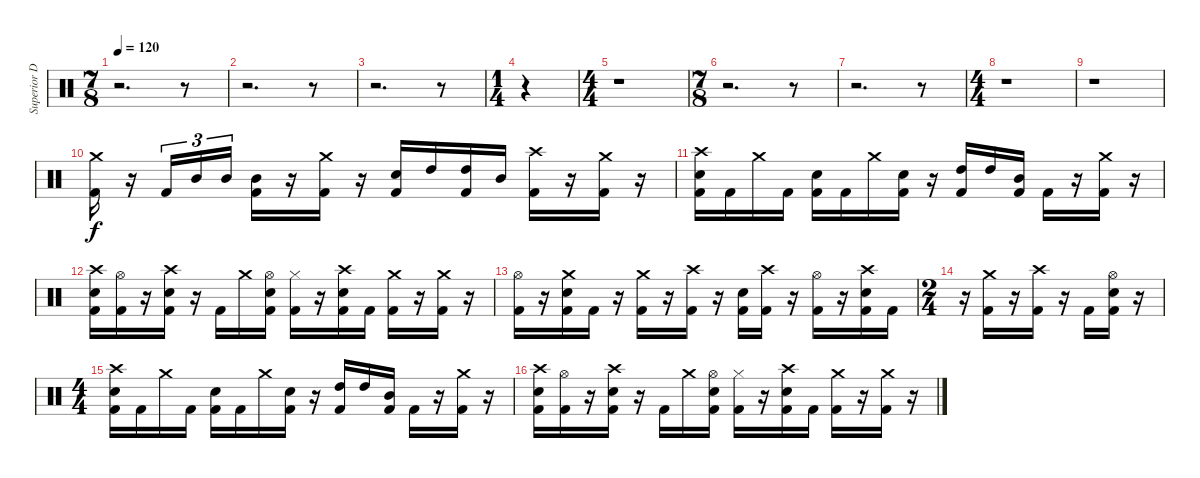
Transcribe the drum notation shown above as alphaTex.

\track ("Superior Drummer 07" "Superior D") {instrument percussion}
\staff {score}
\articulation defaults
\ts (7 8)
\tempo 120
\clef neutral
\ks c
r.2{d dy f} r.8 |
r.2{d} r.8 |
r.2{d} r.8 |
\ts (1 4)
r.4 |
\ts (4 4)
r.1 |
\ts (7 8)
r.2{d} r.8 |
r.2{d} r.8 |
\ts (4 4)
r.1 |
r.1 |
("Kick (hit) 2" "Crash medium (hit)").16 r.16 "Kick (hit) 2".16{tu (3 2)} "Mid Tom (hit)".16{tu (3 2)} "Mid Tom (hit)".16{tu (3 2)} ("Kick (hit) 2" "Mid Tom (hit)").16 r.16 ("Kick (hit) 2" "Crash medium (hit)").16 r.16 ("Kick (hit) 2" "Snare (hit) 2").16 "High Tom (hit)".16 ("Kick (hit) 2" "High Tom (hit)").16 "Mid Tom (hit)".16 ("Kick (hit) 2" "Crash high (hit)").16 r.16 ("Kick (hit) 2" "Crash medium (hit)").16 r.16 |
("Kick (hit) 2" "Snare (hit) 2" "Crash high (hit)").16 "Kick (hit) 2".16 "Crash medium (hit)".16 "Kick (hit) 2".16 ("Kick (hit) 2" "Snare (hit) 2").16 "Kick (hit) 2".16 "Crash medium (hit)".16 ("Kick (hit) 2" "Snare (hit) 2").16 r.16 ("Kick (hit) 2" "High Tom (hit)").16 "High Tom (hit)".16 ("Kick (hit) 2" "Mid Tom (hit)").16 "Kick (hit) 2".16 r.16 ("Kick (hit) 2" "Crash medium (hit)").16 r.16 |
("Kick (hit) 2" "Snare (hit) 2" "Crash high (hit)").16 ("Kick (hit) 2" "Hi-Hat (open)").16 r.16 ("Kick (hit) 2" "Snare (hit) 2" "Crash high (hit)").16 r.16 "Kick (hit) 2".16 "Crash medium (hit)".16 ("Kick (hit) 2" "Snare (hit) 2" "Hi-Hat (open)").16 ("Kick (hit) 2" "Hi-Hat (closed)").16 r.16 ("Kick (hit) 2" "Snare (hit) 2" "Crash high (hit)").16 "Kick (hit) 2".16 ("Kick (hit) 2" "Crash medium (hit)").16 r.16 ("Kick (hit) 2" "Crash medium (hit)").16 r.16 |
("Kick (hit) 2" "Hi-Hat (open)").16 r.16 ("Kick (hit) 2" "Snare (hit) 2" "Crash medium (hit)").16 "Kick (hit) 2".16 r.16 ("Kick (hit) 2" "Crash medium (hit)").16 r.16 ("Kick (hit) 2" "Crash high (hit)").16 r.16 ("Kick (hit) 2" "Snare (hit) 2").16 ("Kick (hit) 2" "Crash high (hit)").16 r.16 ("Kick (hit) 2" "Hi-Hat (open)").16 r.16 ("Kick (hit) 2" "Snare (hit) 2" "Crash high (hit)").16 "Kick (hit) 2".16 |
\ts (2 4)
r.16 ("Kick (hit) 2" "Crash medium (hit)").16 r.16 ("Kick (hit) 2" "Crash high (hit)").16 r.16 "Kick (hit) 2".16 ("Kick (hit) 2" "Snare (hit) 2" "Hi-Hat (open)").16 r.16 |
\ts (4 4)
("Kick (hit) 2" "Snare (hit) 2" "Crash high (hit)").16 "Kick (hit) 2".16 "Crash medium (hit)".16 "Kick (hit) 2".16 ("Kick (hit) 2" "Snare (hit) 2").16 "Kick (hit) 2".16 "Crash medium (hit)".16 ("Kick (hit) 2" "Snare (hit) 2").16 r.16 ("Kick (hit) 2" "High Tom (hit)").16 "High Tom (hit)".16 ("Kick (hit) 2" "Mid Tom (hit)").16 "Kick (hit) 2".16 r.16 ("Kick (hit) 2" "Crash medium (hit)").16 r.16 |
("Kick (hit) 2" "Snare (hit) 2" "Crash high (hit)").16 ("Kick (hit) 2" "Hi-Hat (open)").16 r.16 ("Kick (hit) 2" "Snare (hit) 2" "Crash high (hit)").16 r.16 "Kick (hit) 2".16 "Crash medium (hit)".16 ("Kick (hit) 2" "Snare (hit) 2" "Hi-Hat (open)").16 ("Kick (hit) 2" "Hi-Hat (closed)").16 r.16 ("Kick (hit) 2" "Snare (hit) 2" "Crash high (hit)").16 "Kick (hit) 2".16 ("Kick (hit) 2" "Crash medium (hit)").16 r.16 ("Kick (hit) 2" "Crash medium (hit)").16 r.16
